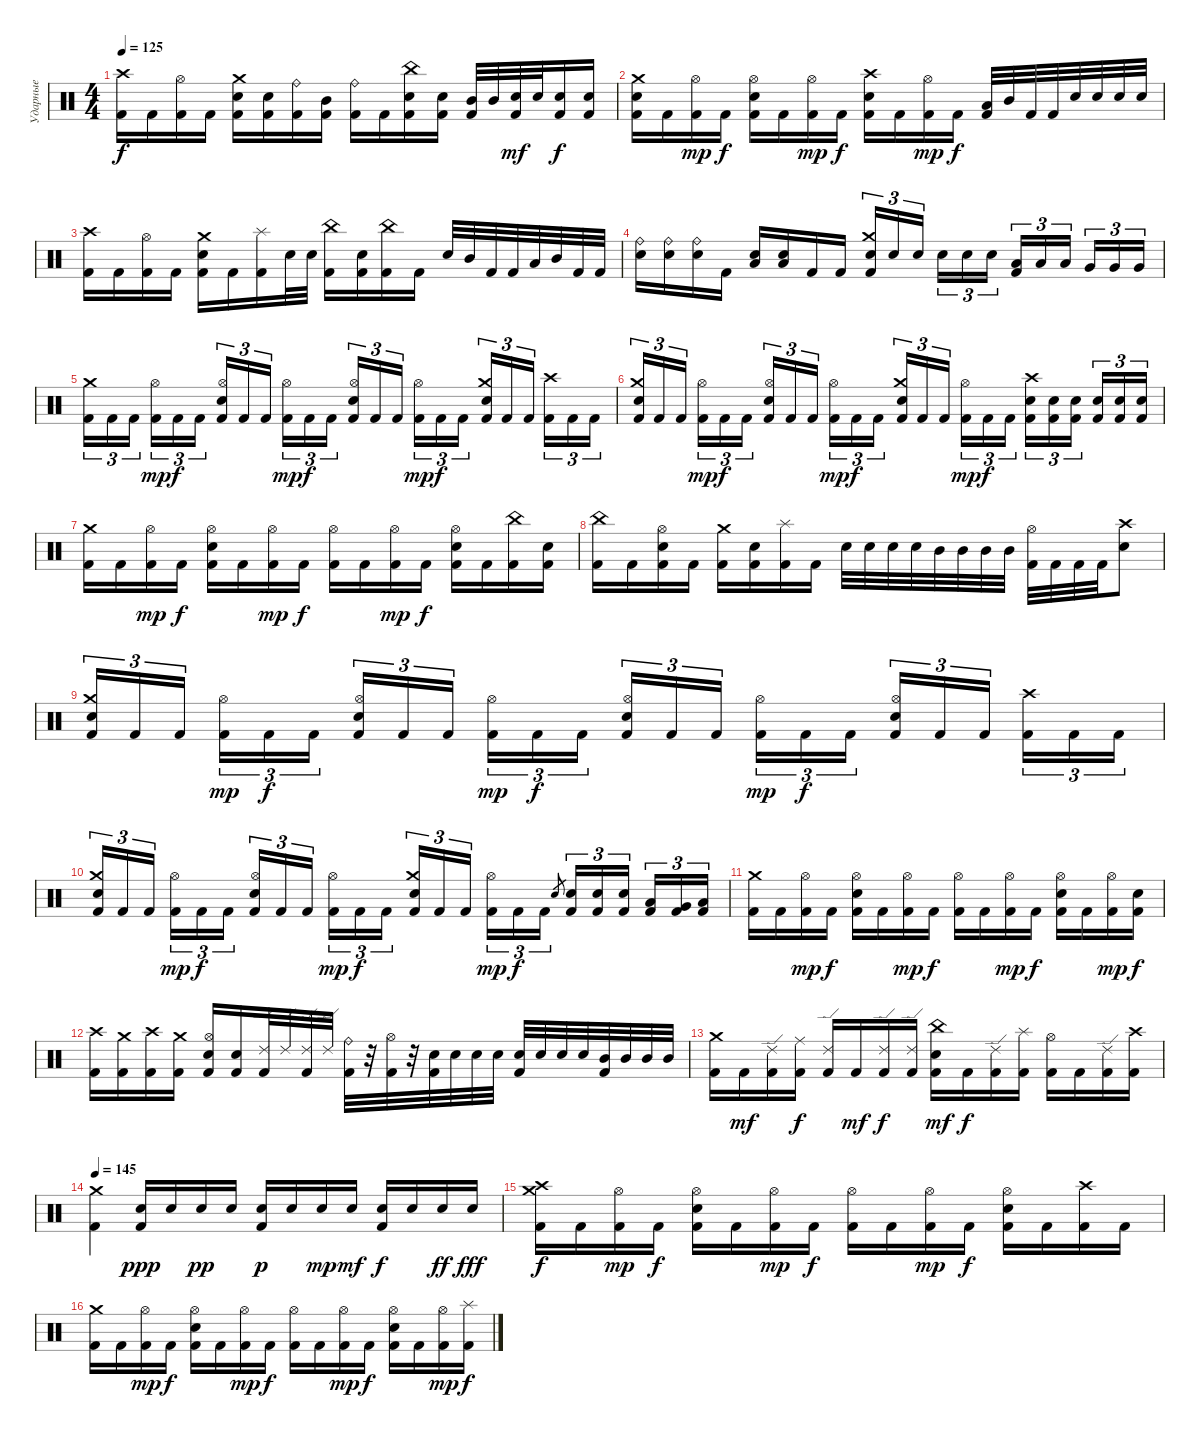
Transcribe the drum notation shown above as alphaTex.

\track ("Ударные" "Ударные") {instrument percussion}
\staff {score}
\articulation defaults
\ts (4 4)
\tempo 125
\clef neutral
\ks c
("Crash high (hit)" "Kick (hit) 2").16{dy f} "Kick (hit) 2".16 ("Hi-Hat (open)" "Kick (hit) 2").16 "Kick (hit) 2".16 ("Crash medium (hit)" "Electric Snare (hit)" "Kick (hit) 2").16 ("Electric Snare (hit)" "Kick (hit) 2").16 ("Ride (bell)" "Kick (hit) 2").16 ("Mid Tom (hit)" "Kick (hit) 2").16 ("Ride (bell)" "Kick (hit) 2").16 "Kick (hit) 2".16 ("China (hit)" "Electric Snare (hit)" "Kick (hit) 2").16 ("Electric Snare (hit)" "Kick (hit) 2").16 ("Mid Tom (hit)" "Kick (hit) 2").32 "Mid Tom (hit)".32 ("Electric Snare (hit)" "Kick (hit) 2").32{dy mf} "Electric Snare (hit)".32 ("Electric Snare (hit)" "Kick (hit) 2").16{dy f} ("Electric Snare (hit)" "Kick (hit) 2").16 |
("Crash medium (hit)" "Electric Snare (hit)" "Kick (hit) 2").16 "Kick (hit) 2".16 ("Hi-Hat (open)" "Kick (hit) 2").16{dy mp} "Kick (hit) 2".16{dy f} ("Hi-Hat (open)" "Electric Snare (hit)" "Kick (hit) 2").16 "Kick (hit) 2".16 ("Hi-Hat (open)" "Kick (hit) 2").16{dy mp} "Kick (hit) 2".16{dy f} ("Crash high (hit)" "Electric Snare (hit)" "Kick (hit) 2").16 "Kick (hit) 2".16 ("Hi-Hat (open)" "Kick (hit) 2").16{dy mp} "Kick (hit) 2".16{dy f} ("Low Tom (hit)" "Kick (hit) 2").32 "Mid Tom (hit)".32 "Kick (hit) 2".32 "Kick (hit) 2".32 "Electric Snare (hit)".32 "Electric Snare (hit)".32 "Electric Snare (hit)".32 "Electric Snare (hit)".32 |
("Crash high (hit)" "Kick (hit) 2").16 "Kick (hit) 2".16 ("Hi-Hat (open)" "Kick (hit) 2").16 "Kick (hit) 2".16 ("Crash medium (hit)" "Electric Snare (hit)" "Kick (hit) 2").16 "Kick (hit) 2".16 ("Splash (hit)" "Kick (hit) 2").16 "Electric Snare (hit)".32 "Electric Snare (hit)".32 ("China (hit)" "Kick (hit) 2").16 ("Electric Snare (hit)" "Kick (hit) 2").16 ("China (hit)" "Kick (hit) 2").16 "Kick (hit) 2".16 "Electric Snare (hit)".32 "Mid Tom (hit)".32 "Kick (hit) 2".32 "Kick (hit) 2".32 "Low Tom (hit)".32 "Mid Tom (hit)".32 "Kick (hit) 2".32 "Kick (hit) 2".32 |
("Ride (bell)" "Electric Snare (hit)").16 ("Ride (bell)" "Electric Snare (hit)").16 ("Ride (bell)" "Electric Snare (hit)").16 "Kick (hit) 2".16 ("Low Floor Tom (hit)" "Electric Snare (hit)").16 ("Low Floor Tom (hit)" "Electric Snare (hit)").16 "Kick (hit) 2".16 "Kick (hit) 2".16 ("Crash medium (hit)" "Electric Snare (hit)" "Kick (hit) 2").16{tu (3 2)} "Electric Snare (hit)".16{tu (3 2)} "Electric Snare (hit)".16{tu (3 2) beam splitsecondary} "Electric Snare (hit)".16{tu (3 2)} "Electric Snare (hit)".16{tu (3 2)} "Electric Snare (hit)".16{tu (3 2)} ("Low Tom (hit)" "Kick (hit) 2").16{tu (3 2)} "Low Tom (hit)".16{tu (3 2)} "Low Tom (hit)".16{tu (3 2) beam splitsecondary} "Very Low Tom (hit)".16{tu (3 2)} "Very Low Tom (hit)".16{tu (3 2)} "Very Low Tom (hit)".16{tu (3 2)} |
("Crash medium (hit)" "Kick (hit) 2").16{tu (3 2)} "Kick (hit) 2".16{tu (3 2)} "Kick (hit) 2".16{tu (3 2) beam splitsecondary} ("Hi-Hat (open)" "Kick (hit) 2").16{tu (3 2) dy mp} "Kick (hit) 2".16{tu (3 2) dy f} "Kick (hit) 2".16{tu (3 2)} ("Hi-Hat (open)" "Electric Snare (hit)" "Kick (hit) 2").16{tu (3 2)} "Kick (hit) 2".16{tu (3 2)} "Kick (hit) 2".16{tu (3 2) beam splitsecondary} ("Hi-Hat (open)" "Kick (hit) 2").16{tu (3 2) dy mp} "Kick (hit) 2".16{tu (3 2) dy f} "Kick (hit) 2".16{tu (3 2)} ("Hi-Hat (open)" "Electric Snare (hit)" "Kick (hit) 2").16{tu (3 2)} "Kick (hit) 2".16{tu (3 2)} "Kick (hit) 2".16{tu (3 2) beam splitsecondary} ("Hi-Hat (open)" "Kick (hit) 2").16{tu (3 2) dy mp} "Kick (hit) 2".16{tu (3 2) dy f} "Kick (hit) 2".16{tu (3 2)} ("Crash medium (hit)" "Electric Snare (hit)" "Kick (hit) 2").16{tu (3 2)} "Kick (hit) 2".16{tu (3 2)} "Kick (hit) 2".16{tu (3 2) beam splitsecondary} ("Crash high (hit)" "Kick (hit) 2").16{tu (3 2)} "Kick (hit) 2".16{tu (3 2)} "Kick (hit) 2".16{tu (3 2)} |
("Crash medium (hit)" "Electric Snare (hit)" "Kick (hit) 2").16{tu (3 2)} "Kick (hit) 2".16{tu (3 2)} "Kick (hit) 2".16{tu (3 2) beam splitsecondary} ("Hi-Hat (open)" "Kick (hit) 2").16{tu (3 2) dy mp} "Kick (hit) 2".16{tu (3 2) dy f} "Kick (hit) 2".16{tu (3 2)} ("Hi-Hat (open)" "Electric Snare (hit)" "Kick (hit) 2").16{tu (3 2)} "Kick (hit) 2".16{tu (3 2)} "Kick (hit) 2".16{tu (3 2) beam splitsecondary} ("Hi-Hat (open)" "Kick (hit) 2").16{tu (3 2) dy mp} "Kick (hit) 2".16{tu (3 2) dy f} "Kick (hit) 2".16{tu (3 2)} ("Crash medium (hit)" "Electric Snare (hit)" "Kick (hit) 2").16{tu (3 2)} "Kick (hit) 2".16{tu (3 2)} "Kick (hit) 2".16{tu (3 2) beam splitsecondary} ("Hi-Hat (open)" "Kick (hit) 2").16{tu (3 2) dy mp} "Kick (hit) 2".16{tu (3 2) dy f} "Kick (hit) 2".16{tu (3 2)} ("Crash high (hit)" "Electric Snare (hit)" "Kick (hit) 2").16{tu (3 2)} ("Electric Snare (hit)" "Kick (hit) 2").16{tu (3 2)} ("Electric Snare (hit)" "Kick (hit) 2").16{tu (3 2) beam splitsecondary} ("Electric Snare (hit)" "Kick (hit) 2").16{tu (3 2)} ("Electric Snare (hit)" "Kick (hit) 2").16{tu (3 2)} ("Electric Snare (hit)" "Kick (hit) 2").16{tu (3 2)} |
("Crash medium (hit)" "Kick (hit) 2").16 "Kick (hit) 2".16 ("Hi-Hat (open)" "Kick (hit) 2").16{dy mp} "Kick (hit) 2".16{dy f} ("Hi-Hat (open)" "Electric Snare (hit)" "Kick (hit) 2").16 "Kick (hit) 2".16 ("Hi-Hat (open)" "Kick (hit) 2").16{dy mp} "Kick (hit) 2".16{dy f} ("Hi-Hat (open)" "Kick (hit) 2").16 "Kick (hit) 2".16 ("Hi-Hat (open)" "Kick (hit) 2").16{dy mp} "Kick (hit) 2".16{dy f} ("Hi-Hat (open)" "Electric Snare (hit)" "Kick (hit) 2").16 "Kick (hit) 2".16 ("China (hit)" "Kick (hit) 2").16 ("Electric Snare (hit)" "Kick (hit) 2").16 |
("China (hit)" "Kick (hit) 2").16 "Kick (hit) 2".16 ("Hi-Hat (open)" "Electric Snare (hit)" "Kick (hit) 2").16 "Kick (hit) 2".16 ("Crash medium (hit)" "Kick (hit) 2").16 ("Electric Snare (hit)" "Kick (hit) 2").16 ("Splash (hit)" "Kick (hit) 2").16 "Kick (hit) 2".16 "Electric Snare (hit)".32 "Electric Snare (hit)".32 "Electric Snare (hit)".32 "Electric Snare (hit)".32 "Mid Tom (hit)".32 "Mid Tom (hit)".32 "Mid Tom (hit)".32 "Mid Tom (hit)".32 ("Hi-Hat (open)" "Kick (hit) 2").32 "Kick (hit) 2".32 "Kick (hit) 2".32 "Kick (hit) 2".32 ("Crash high (hit)" "Electric Snare (hit)").8 |
("Crash medium (hit)" "Electric Snare (hit)" "Kick (hit) 2").16{tu (3 2)} "Kick (hit) 2".16{tu (3 2)} "Kick (hit) 2".16{tu (3 2) beam splitsecondary} ("Hi-Hat (open)" "Kick (hit) 2").16{tu (3 2) dy mp} "Kick (hit) 2".16{tu (3 2) dy f} "Kick (hit) 2".16{tu (3 2)} ("Hi-Hat (open)" "Electric Snare (hit)" "Kick (hit) 2").16{tu (3 2)} "Kick (hit) 2".16{tu (3 2)} "Kick (hit) 2".16{tu (3 2) beam splitsecondary} ("Hi-Hat (open)" "Kick (hit) 2").16{tu (3 2) dy mp} "Kick (hit) 2".16{tu (3 2) dy f} "Kick (hit) 2".16{tu (3 2)} ("Hi-Hat (open)" "Electric Snare (hit)" "Kick (hit) 2").16{tu (3 2)} "Kick (hit) 2".16{tu (3 2)} "Kick (hit) 2".16{tu (3 2) beam splitsecondary} ("Hi-Hat (open)" "Kick (hit) 2").16{tu (3 2) dy mp} "Kick (hit) 2".16{tu (3 2) dy f} "Kick (hit) 2".16{tu (3 2)} ("Hi-Hat (open)" "Electric Snare (hit)" "Kick (hit) 2").16{tu (3 2)} "Kick (hit) 2".16{tu (3 2)} "Kick (hit) 2".16{tu (3 2) beam splitsecondary} ("Crash high (hit)" "Kick (hit) 2").16{tu (3 2)} "Kick (hit) 2".16{tu (3 2)} "Kick (hit) 2".16{tu (3 2)} |
("Crash medium (hit)" "Electric Snare (hit)" "Kick (hit) 2").16{tu (3 2)} "Kick (hit) 2".16{tu (3 2)} "Kick (hit) 2".16{tu (3 2) beam splitsecondary} ("Hi-Hat (open)" "Kick (hit) 2").16{tu (3 2) dy mp} "Kick (hit) 2".16{tu (3 2) dy f} "Kick (hit) 2".16{tu (3 2)} ("Hi-Hat (open)" "Electric Snare (hit)" "Kick (hit) 2").16{tu (3 2)} "Kick (hit) 2".16{tu (3 2)} "Kick (hit) 2".16{tu (3 2) beam splitsecondary} ("Hi-Hat (open)" "Kick (hit) 2").16{tu (3 2) dy mp} "Kick (hit) 2".16{tu (3 2) dy f} "Kick (hit) 2".16{tu (3 2)} ("Crash medium (hit)" "Electric Snare (hit)" "Kick (hit) 2").16{tu (3 2)} "Kick (hit) 2".16{tu (3 2)} "Kick (hit) 2".16{tu (3 2) beam splitsecondary} ("Hi-Hat (open)" "Kick (hit) 2").16{tu (3 2) dy mp} "Kick (hit) 2".16{tu (3 2) dy f} "Kick (hit) 2".16{tu (3 2)} "Electric Snare (hit)".8{gr} ("Electric Snare (hit)" "Kick (hit) 2").16{tu (3 2)} ("Electric Snare (hit)" "Kick (hit) 2").16{tu (3 2)} ("Electric Snare (hit)" "Kick (hit) 2").16{tu (3 2) beam splitsecondary} ("Low Tom (hit)" "Kick (hit) 2").16{tu (3 2)} ("Very Low Tom (hit)" "Kick (hit) 2").16{tu (3 2)} ("Low Floor Tom (hit)" "Kick (hit) 2").16{tu (3 2)} |
("Crash medium (hit)" "Kick (hit) 2").16 "Kick (hit) 2".16 ("Hi-Hat (open)" "Kick (hit) 2").16{dy mp} "Kick (hit) 2".16{dy f} ("Hi-Hat (open)" "Electric Snare (hit)" "Kick (hit) 2").16 "Kick (hit) 2".16 ("Hi-Hat (open)" "Kick (hit) 2").16{dy mp} "Kick (hit) 2".16{dy f} ("Hi-Hat (open)" "Kick (hit) 2").16 "Kick (hit) 2".16 ("Hi-Hat (open)" "Kick (hit) 2").16{dy mp} "Kick (hit) 2".16{dy f} ("Hi-Hat (open)" "Electric Snare (hit)" "Kick (hit) 2").16 "Kick (hit) 2".16 ("Hi-Hat (open)" "Kick (hit) 2").16{dy mp} ("Electric Snare (hit)" "Kick (hit) 2").16{dy f} |
("Crash high (hit)" "Kick (hit) 2").16 ("Crash medium (hit)" "Kick (hit) 2").16 ("Crash high (hit)" "Kick (hit) 2").16 ("Crash medium (hit)" "Kick (hit) 2").16 ("Hi-Hat (open)" "Electric Snare (hit)" "Kick (hit) 2").16 ("Electric Snare (hit)" "Kick (hit) 2").16 ("Ride (edge) 2" "Kick (hit) 2").32 "Ride (edge) 2".32 ("Ride (edge) 2" "Kick (hit) 2").32 "Ride (edge) 2".32 ("Ride (bell)" "Kick (hit) 2").32 r.32 ("Hi-Hat (open)" "Kick (hit) 2").32 r.32 ("Electric Snare (hit)" "Kick (hit) 2").32 "Electric Snare (hit)".32 "Electric Snare (hit)".32 "Electric Snare (hit)".32 ("Electric Snare (hit)" "Kick (hit) 2").32 "Electric Snare (hit)".32 "Electric Snare (hit)".32 "Electric Snare (hit)".32 ("Mid Tom (hit)" "Kick (hit) 2").32 "Mid Tom (hit)".32 "Mid Tom (hit)".32 "Mid Tom (hit)".32 |
("Crash medium (hit)" "Kick (hit) 2").16 "Kick (hit) 2".16{dy mf} ("Ride (edge) 2" "Kick (hit) 2").16 ("Ride (middle)" "Kick (hit) 2").16{dy f} ("Ride (edge) 2" "Kick (hit) 2").16 "Kick (hit) 2".16{dy mf} ("Ride (edge) 2" "Kick (hit) 2").16{dy f} ("Ride (edge) 2" "Kick (hit) 2").16 ("China (hit)" "Electric Snare (hit)" "Kick (hit) 2").16{dy mf} "Kick (hit) 2".16{dy f} ("Ride (edge) 2" "Kick (hit) 2").16 ("Splash (hit)" "Kick (hit) 2").16 ("Hi-Hat (open)" "Kick (hit) 2").16 "Kick (hit) 2".16 ("Ride (edge) 2" "Kick (hit) 2").16 ("Crash high (hit)" "Kick (hit) 2").16 |
\tempo 145
("Crash medium (hit)" "Kick (hit) 2").4 ("Electric Snare (hit)" "Kick (hit) 2").16{dy ppp} "Electric Snare (hit)".16 "Electric Snare (hit)".16{dy pp} "Electric Snare (hit)".16 ("Electric Snare (hit)" "Kick (hit) 2").16{dy p} "Electric Snare (hit)".16 "Electric Snare (hit)".16{dy mp} "Electric Snare (hit)".16{dy mf} ("Electric Snare (hit)" "Kick (hit) 2").16{dy f} "Electric Snare (hit)".16 "Electric Snare (hit)".16{dy ff} "Electric Snare (hit)".16{dy fff} |
("Crash medium (hit)" "Crash high (hit)" "Kick (hit) 2").16{dy f} "Kick (hit) 2".16 ("Hi-Hat (open)" "Kick (hit) 2").16{dy mp} "Kick (hit) 2".16{dy f} ("Hi-Hat (open)" "Electric Snare (hit)" "Kick (hit) 2").16 "Kick (hit) 2".16 ("Hi-Hat (open)" "Kick (hit) 2").16{dy mp} "Kick (hit) 2".16{dy f} ("Hi-Hat (open)" "Kick (hit) 2").16 "Kick (hit) 2".16 ("Hi-Hat (open)" "Kick (hit) 2").16{dy mp} "Kick (hit) 2".16{dy f} ("Hi-Hat (open)" "Electric Snare (hit)" "Kick (hit) 2").16 "Kick (hit) 2".16 ("Crash high (hit)" "Kick (hit) 2").16 "Kick (hit) 2".16 |
("Crash medium (hit)" "Kick (hit) 2").16 "Kick (hit) 2".16 ("Hi-Hat (open)" "Kick (hit) 2").16{dy mp} "Kick (hit) 2".16{dy f} ("Hi-Hat (open)" "Electric Snare (hit)" "Kick (hit) 2").16 "Kick (hit) 2".16 ("Hi-Hat (open)" "Kick (hit) 2").16{dy mp} "Kick (hit) 2".16{dy f} ("Hi-Hat (open)" "Kick (hit) 2").16 "Kick (hit) 2".16 ("Hi-Hat (open)" "Kick (hit) 2").16{dy mp} "Kick (hit) 2".16{dy f} ("Hi-Hat (open)" "Electric Snare (hit)" "Kick (hit) 2").16 "Kick (hit) 2".16 ("Hi-Hat (open)" "Kick (hit) 2").16{dy mp} ("Splash (hit)" "Kick (hit) 2").16{dy f}
